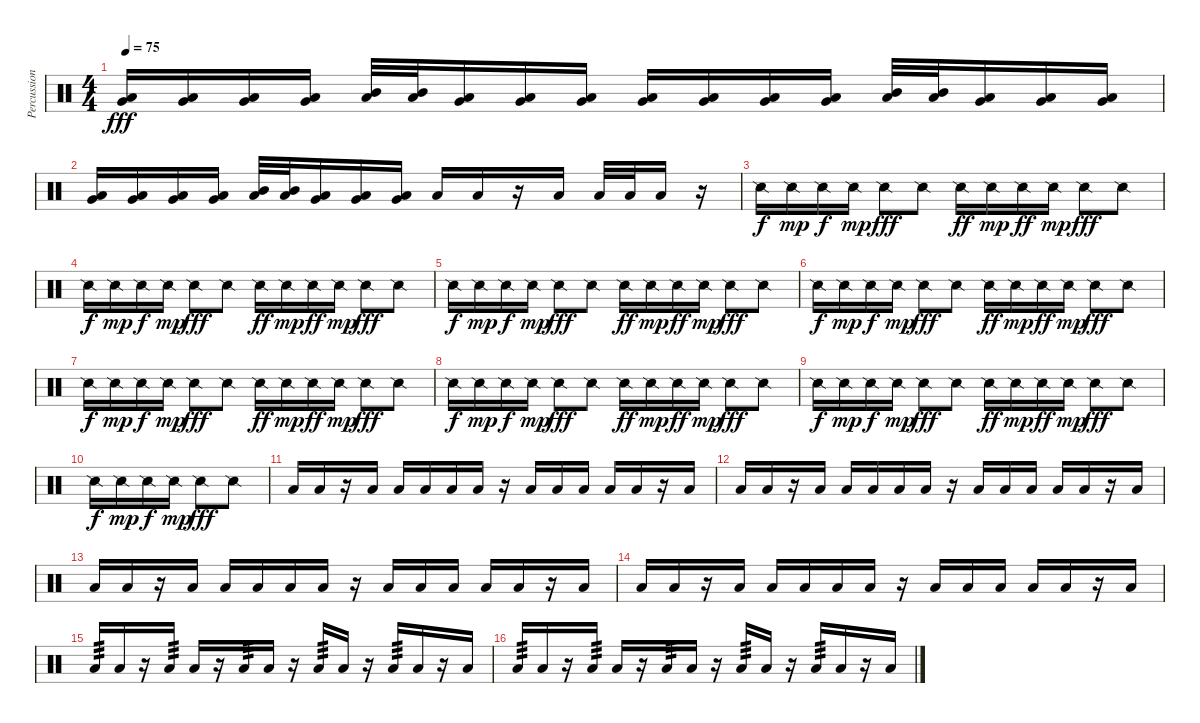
\track ("Percussion" "Percussion") {instrument percussion}
\staff {score}
\articulation defaults
\ts (4 4)
\tempo 75
\clef neutral
\ks c
("Very Low Tom (hit)" "Low Floor Tom (hit)").16{bd 60 dy fff} ("Very Low Tom (hit)" "Low Floor Tom (hit)").16{bd 60} ("Very Low Tom (hit)" "Low Floor Tom (hit)").16{bd 60} ("Very Low Tom (hit)" "Low Floor Tom (hit)").16{bd 60} ("Mid Tom (hit)" "Low Tom (hit)").32{bd 60} ("Mid Tom (hit)" "Low Tom (hit)").32{bd 60} ("Low Tom (hit)" "Very Low Tom (hit)").16{bd 60} ("Low Tom (hit)" "Very Low Tom (hit)").16{bd 60} ("Very Low Tom (hit)" "Low Floor Tom (hit)").16{bd 60} ("Very Low Tom (hit)" "Low Floor Tom (hit)").16{bd 60} ("Very Low Tom (hit)" "Low Floor Tom (hit)").16{bd 60} ("Very Low Tom (hit)" "Low Floor Tom (hit)").16{bd 60} ("Very Low Tom (hit)" "Low Floor Tom (hit)").16{bd 60} ("Mid Tom (hit)" "Low Tom (hit)").32{bd 60} ("Mid Tom (hit)" "Low Tom (hit)").32{bd 60} ("Low Tom (hit)" "Very Low Tom (hit)").16{bd 60} ("Low Tom (hit)" "Very Low Tom (hit)").16{bd 60} ("Very Low Tom (hit)" "Low Floor Tom (hit)").16{bd 60} |
("Very Low Tom (hit)" "Low Floor Tom (hit)").16{bd 60} ("Very Low Tom (hit)" "Low Floor Tom (hit)").16{bd 60} ("Very Low Tom (hit)" "Low Floor Tom (hit)").16{bd 60} ("Very Low Tom (hit)" "Low Floor Tom (hit)").16{bd 60} ("Mid Tom (hit)" "Low Tom (hit)").32{bd 60} ("Mid Tom (hit)" "Low Tom (hit)").32{bd 60} ("Low Tom (hit)" "Very Low Tom (hit)").16{bd 60} ("Low Tom (hit)" "Very Low Tom (hit)").16{bd 60} ("Very Low Tom (hit)" "Low Floor Tom (hit)").16{bd 60} "Low Floor Tom (hit)".16{bd 60} "Low Floor Tom (hit)".16{bd 60} r.16 "Low Floor Tom (hit)".16{bd 60} "Low Floor Tom (hit)".32{bd 60} "Low Floor Tom (hit)".32{bd 60} "Low Floor Tom (hit)".16{bd 60} r.16 |
"Snare (side stick) 2".16{dy f} "Snare (side stick) 2".16{dy mp} "Snare (side stick) 2".16{dy f} "Snare (side stick) 2".16{dy mp} "Snare (side stick) 2".8{dy fff} "Snare (side stick) 2".8 "Snare (side stick) 2".16{dy ff} "Snare (side stick) 2".16{dy mp} "Snare (side stick) 2".16{dy ff} "Snare (side stick) 2".16{dy mp} "Snare (side stick) 2".8{dy fff} "Snare (side stick) 2".8 |
"Snare (side stick) 2".16{dy f} "Snare (side stick) 2".16{dy mp} "Snare (side stick) 2".16{dy f} "Snare (side stick) 2".16{dy mp} "Snare (side stick) 2".8{dy fff} "Snare (side stick) 2".8 "Snare (side stick) 2".16{dy ff} "Snare (side stick) 2".16{dy mp} "Snare (side stick) 2".16{dy ff} "Snare (side stick) 2".16{dy mp} "Snare (side stick) 2".8{dy fff} "Snare (side stick) 2".8 |
"Snare (side stick) 2".16{dy f} "Snare (side stick) 2".16{dy mp} "Snare (side stick) 2".16{dy f} "Snare (side stick) 2".16{dy mp} "Snare (side stick) 2".8{dy fff} "Snare (side stick) 2".8 "Snare (side stick) 2".16{dy ff} "Snare (side stick) 2".16{dy mp} "Snare (side stick) 2".16{dy ff} "Snare (side stick) 2".16{dy mp} "Snare (side stick) 2".8{dy fff} "Snare (side stick) 2".8 |
"Snare (side stick) 2".16{dy f} "Snare (side stick) 2".16{dy mp} "Snare (side stick) 2".16{dy f} "Snare (side stick) 2".16{dy mp} "Snare (side stick) 2".8{dy fff} "Snare (side stick) 2".8 "Snare (side stick) 2".16{dy ff} "Snare (side stick) 2".16{dy mp} "Snare (side stick) 2".16{dy ff} "Snare (side stick) 2".16{dy mp} "Snare (side stick) 2".8{dy fff} "Snare (side stick) 2".8 |
"Snare (side stick) 2".16{dy f} "Snare (side stick) 2".16{dy mp} "Snare (side stick) 2".16{dy f} "Snare (side stick) 2".16{dy mp} "Snare (side stick) 2".8{dy fff} "Snare (side stick) 2".8 "Snare (side stick) 2".16{dy ff} "Snare (side stick) 2".16{dy mp} "Snare (side stick) 2".16{dy ff} "Snare (side stick) 2".16{dy mp} "Snare (side stick) 2".8{dy fff} "Snare (side stick) 2".8 |
"Snare (side stick) 2".16{dy f} "Snare (side stick) 2".16{dy mp} "Snare (side stick) 2".16{dy f} "Snare (side stick) 2".16{dy mp} "Snare (side stick) 2".8{dy fff} "Snare (side stick) 2".8 "Snare (side stick) 2".16{dy ff} "Snare (side stick) 2".16{dy mp} "Snare (side stick) 2".16{dy ff} "Snare (side stick) 2".16{dy mp} "Snare (side stick) 2".8{dy fff} "Snare (side stick) 2".8 |
"Snare (side stick) 2".16{dy f} "Snare (side stick) 2".16{dy mp} "Snare (side stick) 2".16{dy f} "Snare (side stick) 2".16{dy mp} "Snare (side stick) 2".8{dy fff} "Snare (side stick) 2".8 "Snare (side stick) 2".16{dy ff} "Snare (side stick) 2".16{dy mp} "Snare (side stick) 2".16{dy ff} "Snare (side stick) 2".16{dy mp} "Snare (side stick) 2".8{dy fff} "Snare (side stick) 2".8 |
"Snare (side stick) 2".16{dy f} "Snare (side stick) 2".16{dy mp} "Snare (side stick) 2".16{dy f} "Snare (side stick) 2".16{dy mp} "Snare (side stick) 2".8{dy fff} "Snare (side stick) 2".8 |
"Low Floor Tom (hit)".16 "Low Floor Tom (hit)".16 r.16 "Low Floor Tom (hit)".16 "Low Floor Tom (hit)".16 "Low Floor Tom (hit)".16 "Low Floor Tom (hit)".16 "Low Floor Tom (hit)".16 r.16 "Low Floor Tom (hit)".16 "Low Floor Tom (hit)".16 "Low Floor Tom (hit)".16 "Low Floor Tom (hit)".16 "Low Floor Tom (hit)".16 r.16 "Low Floor Tom (hit)".16 |
"Low Floor Tom (hit)".16 "Low Floor Tom (hit)".16 r.16 "Low Floor Tom (hit)".16 "Low Floor Tom (hit)".16 "Low Floor Tom (hit)".16 "Low Floor Tom (hit)".16 "Low Floor Tom (hit)".16 r.16 "Low Floor Tom (hit)".16 "Low Floor Tom (hit)".16 "Low Floor Tom (hit)".16 "Low Floor Tom (hit)".16 "Low Floor Tom (hit)".16 r.16 "Low Floor Tom (hit)".16 |
"Low Floor Tom (hit)".16 "Low Floor Tom (hit)".16 r.16 "Low Floor Tom (hit)".16 "Low Floor Tom (hit)".16 "Low Floor Tom (hit)".16 "Low Floor Tom (hit)".16 "Low Floor Tom (hit)".16 r.16 "Low Floor Tom (hit)".16 "Low Floor Tom (hit)".16 "Low Floor Tom (hit)".16 "Low Floor Tom (hit)".16 "Low Floor Tom (hit)".16 r.16 "Low Floor Tom (hit)".16 |
"Low Floor Tom (hit)".16 "Low Floor Tom (hit)".16 r.16 "Low Floor Tom (hit)".16 "Low Floor Tom (hit)".16 "Low Floor Tom (hit)".16 "Low Floor Tom (hit)".16 "Low Floor Tom (hit)".16 r.16 "Low Floor Tom (hit)".16 "Low Floor Tom (hit)".16 "Low Floor Tom (hit)".16 "Low Floor Tom (hit)".16 "Low Floor Tom (hit)".16 r.16 "Low Floor Tom (hit)".16 |
"Low Floor Tom (hit)".16{tp 3} "Low Floor Tom (hit)".16 r.16 "Low Floor Tom (hit)".16{tp 3} "Low Floor Tom (hit)".16 r.16 "Low Floor Tom (hit)".16{tp 3} "Low Floor Tom (hit)".16 r.16 "Low Floor Tom (hit)".16{tp 3} "Low Floor Tom (hit)".16 r.16 "Low Floor Tom (hit)".16{tp 3} "Low Floor Tom (hit)".16 r.16 "Low Floor Tom (hit)".16 |
"Low Floor Tom (hit)".16{tp 3} "Low Floor Tom (hit)".16 r.16 "Low Floor Tom (hit)".16{tp 3} "Low Floor Tom (hit)".16 r.16 "Low Floor Tom (hit)".16{tp 3} "Low Floor Tom (hit)".16 r.16 "Low Floor Tom (hit)".16{tp 3} "Low Floor Tom (hit)".16 r.16 "Low Floor Tom (hit)".16{tp 3} "Low Floor Tom (hit)".16 r.16 "Low Floor Tom (hit)".16
